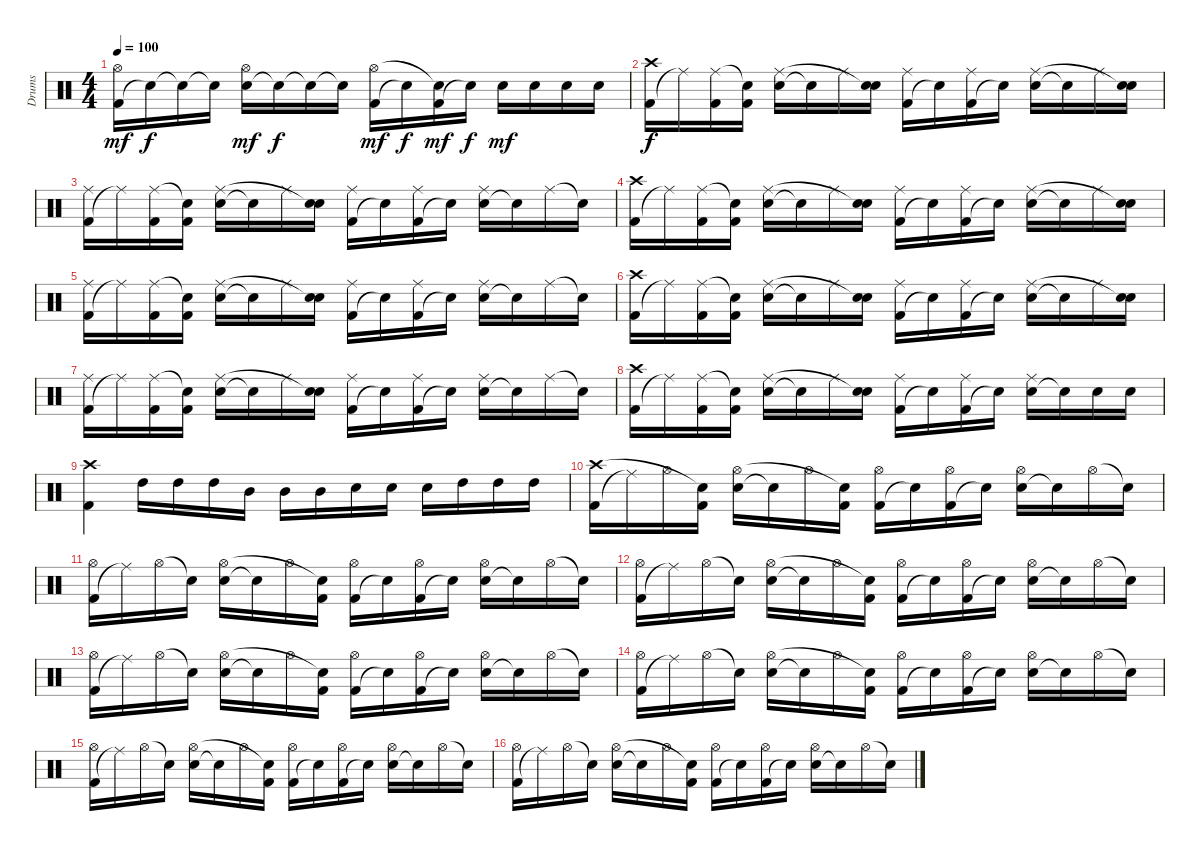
\track ("Drums" "Drums") {instrument percussion}
\staff {score}
\articulation defaults
\ts (4 4)
\tempo 100
\clef neutral
\ks c
("Kick (hit) 2" "Hi-Hat (open)").16{dy mf} "Snare (hit)"{t}.16{dy f} "Snare (hit)"{t}.16 "Snare (hit)"{t}.16 ("Snare (hit) 2" "Hi-Hat (open)").16{dy mf} "Snare (hit)"{t}.16{dy f} "Snare (hit)"{t}.16 "Snare (hit)"{t}.16 ("Kick (hit) 2" "Hi-Hat (open)").16{dy mf} "Snare (hit)"{t}.16{dy f} ("Kick (hit) 2" "Snare (hit)"{t}).16{dy mf} "Snare (hit)"{t}.16{dy f} "Snare (hit) 2".16{dy mf} "Snare (hit) 2".16 "Snare (hit) 2".16 "Snare (hit) 2".16 |
("Kick (hit) 2" "Crash high (hit)").16{dy f} "Ride (middle)"{t}.16 ("Kick (hit) 2" "Ride (middle)").16 ("Kick (hit) 2" "Snare (hit)"{t}).16 ("Snare (hit) 2" "Ride (middle)").16 "Snare (hit)"{t}.16 "Ride (middle)".16 ("Snare (hit) 2" "Snare (hit)"{t}).16 ("Kick (hit) 2" "Ride (middle)").16 "Snare (hit)"{t}.16 ("Kick (hit) 2" "Ride (middle)").16 "Snare (hit)"{t}.16 ("Snare (hit) 2" "Ride (middle)").16 "Snare (hit)"{t}.16 "Ride (middle)".16 ("Snare (hit) 2" "Snare (hit)"{t}).16 |
("Kick (hit) 2" "Ride (middle)").16 "Ride (middle)"{t}.16 ("Kick (hit) 2" "Ride (middle)").16 ("Kick (hit) 2" "Snare (hit)"{t}).16 ("Snare (hit) 2" "Ride (middle)").16 "Snare (hit)"{t}.16 "Ride (middle)".16 ("Snare (hit) 2" "Snare (hit)"{t}).16 ("Kick (hit) 2" "Ride (middle)").16 "Snare (hit)"{t}.16 ("Kick (hit) 2" "Ride (middle)").16 "Snare (hit)"{t}.16 ("Snare (hit) 2" "Ride (middle)").16 "Snare (hit)"{t}.16 "Ride (middle)".16 "Snare (hit)"{t}.16 |
("Kick (hit) 2" "Crash high (hit)").16 "Ride (middle)"{t}.16 ("Kick (hit) 2" "Ride (middle)").16 ("Kick (hit) 2" "Snare (hit)"{t}).16 ("Snare (hit) 2" "Ride (middle)").16 "Snare (hit)"{t}.16 "Ride (middle)".16 ("Snare (hit) 2" "Snare (hit)"{t}).16 ("Kick (hit) 2" "Ride (middle)").16 "Snare (hit)"{t}.16 ("Kick (hit) 2" "Ride (middle)").16 "Snare (hit)"{t}.16 ("Snare (hit) 2" "Ride (middle)").16 "Snare (hit)"{t}.16 "Ride (middle)".16 ("Snare (hit) 2" "Snare (hit)"{t}).16 |
("Kick (hit) 2" "Ride (middle)").16 "Ride (middle)"{t}.16 ("Kick (hit) 2" "Ride (middle)").16 ("Kick (hit) 2" "Snare (hit)"{t}).16 ("Snare (hit) 2" "Ride (middle)").16 "Snare (hit)"{t}.16 "Ride (middle)".16 ("Snare (hit) 2" "Snare (hit)"{t}).16 ("Kick (hit) 2" "Ride (middle)").16 "Snare (hit)"{t}.16 ("Kick (hit) 2" "Ride (middle)").16 "Snare (hit)"{t}.16 ("Snare (hit) 2" "Ride (middle)").16 "Snare (hit)"{t}.16 "Ride (middle)".16 "Snare (hit)"{t}.16 |
("Kick (hit) 2" "Crash high (hit)").16 "Ride (middle)"{t}.16 ("Kick (hit) 2" "Ride (middle)").16 ("Kick (hit) 2" "Snare (hit)"{t}).16 ("Snare (hit) 2" "Ride (middle)").16 "Snare (hit)"{t}.16 "Ride (middle)".16 ("Snare (hit) 2" "Snare (hit)"{t}).16 ("Kick (hit) 2" "Ride (middle)").16 "Snare (hit)"{t}.16 ("Kick (hit) 2" "Ride (middle)").16 "Snare (hit)"{t}.16 ("Snare (hit) 2" "Ride (middle)").16 "Snare (hit)"{t}.16 "Ride (middle)".16 ("Snare (hit) 2" "Snare (hit)"{t}).16 |
("Kick (hit) 2" "Ride (middle)").16 "Ride (middle)"{t}.16 ("Kick (hit) 2" "Ride (middle)").16 ("Kick (hit) 2" "Snare (hit)"{t}).16 ("Snare (hit) 2" "Ride (middle)").16 "Snare (hit)"{t}.16 "Ride (middle)".16 ("Snare (hit) 2" "Snare (hit)"{t}).16 ("Kick (hit) 2" "Ride (middle)").16 "Snare (hit)"{t}.16 ("Kick (hit) 2" "Ride (middle)").16 "Snare (hit)"{t}.16 ("Snare (hit) 2" "Ride (middle)").16 "Snare (hit)"{t}.16 "Ride (middle)".16 "Snare (hit)"{t}.16 |
("Kick (hit) 2" "Crash high (hit)").16 "Ride (middle)"{t}.16 ("Kick (hit) 2" "Ride (middle)").16 ("Kick (hit) 2" "Snare (hit)"{t}).16 ("Snare (hit) 2" "Ride (middle)").16 "Snare (hit)"{t}.16 "Ride (middle)".16 ("Snare (hit) 2" "Snare (hit)"{t}).16 ("Kick (hit) 2" "Ride (middle)").16 "Snare (hit)"{t}.16 ("Kick (hit) 2" "Ride (middle)").16 "Snare (hit)"{t}.16 ("Snare (hit) 2" "Ride (middle)").16 "Snare (hit)"{t}.16 "Snare (hit) 2".16 "Snare (hit) 2".16 |
("Crash high (hit)" "Kick (hit) 2").4 "High Tom (hit)".16 "High Tom (hit)".16 "High Tom (hit)".16 "Mid Tom (hit)".16 "Mid Tom (hit)".16 "Mid Tom (hit)".16 "Snare (hit) 2".16 "Snare (hit) 2".16 "Snare (hit) 2".16 "High Tom (hit)".16 "High Tom (hit)".16 "High Tom (hit)".16 |
("Kick (hit) 2" "Crash high (hit)").16 "Ride (middle)"{t}.16 "Hi-Hat (open)".16 ("Kick (hit) 2" "Snare (hit)"{t}).16 ("Snare (hit) 2" "Hi-Hat (open)").16 "Snare (hit)"{t}.16 "Hi-Hat (open)".16 ("Kick (hit) 2" "Snare (hit)"{t}).16 ("Kick (hit) 2" "Hi-Hat (open)").16 "Snare (hit)"{t}.16 ("Kick (hit) 2" "Hi-Hat (open)").16 "Snare (hit)"{t}.16 ("Snare (hit) 2" "Hi-Hat (open)").16 "Snare (hit)"{t}.16 "Hi-Hat (open)".16 "Snare (hit)"{t}.16 |
("Kick (hit) 2" "Hi-Hat (open)").16 "Ride (middle)"{t}.16 "Hi-Hat (open)".16 "Snare (hit)"{t}.16 ("Snare (hit) 2" "Hi-Hat (open)").16 "Snare (hit)"{t}.16 "Hi-Hat (open)".16 ("Kick (hit) 2" "Snare (hit)"{t}).16 ("Kick (hit) 2" "Hi-Hat (open)").16 "Snare (hit)"{t}.16 ("Kick (hit) 2" "Hi-Hat (open)").16 "Snare (hit)"{t}.16 ("Snare (hit) 2" "Hi-Hat (open)").16 "Snare (hit)"{t}.16 "Hi-Hat (open)".16 "Snare (hit)"{t}.16 |
("Kick (hit) 2" "Hi-Hat (open)").16 "Ride (middle)"{t}.16 "Hi-Hat (open)".16 "Snare (hit)"{t}.16 ("Snare (hit) 2" "Hi-Hat (open)").16 "Snare (hit)"{t}.16 "Hi-Hat (open)".16 ("Kick (hit) 2" "Snare (hit)"{t}).16 ("Kick (hit) 2" "Hi-Hat (open)").16 "Snare (hit)"{t}.16 ("Kick (hit) 2" "Hi-Hat (open)").16 "Snare (hit)"{t}.16 ("Snare (hit) 2" "Hi-Hat (open)").16 "Snare (hit)"{t}.16 "Hi-Hat (open)".16 "Snare (hit)"{t}.16 |
("Kick (hit) 2" "Hi-Hat (open)").16 "Ride (middle)"{t}.16 "Hi-Hat (open)".16 "Snare (hit)"{t}.16 ("Snare (hit) 2" "Hi-Hat (open)").16 "Snare (hit)"{t}.16 "Hi-Hat (open)".16 ("Kick (hit) 2" "Snare (hit)"{t}).16 ("Kick (hit) 2" "Hi-Hat (open)").16 "Snare (hit)"{t}.16 ("Kick (hit) 2" "Hi-Hat (open)").16 "Snare (hit)"{t}.16 ("Snare (hit) 2" "Hi-Hat (open)").16 "Snare (hit)"{t}.16 "Hi-Hat (open)".16 "Snare (hit)"{t}.16 |
("Kick (hit) 2" "Hi-Hat (open)").16 "Ride (middle)"{t}.16 "Hi-Hat (open)".16 "Snare (hit)"{t}.16 ("Snare (hit) 2" "Hi-Hat (open)").16 "Snare (hit)"{t}.16 "Hi-Hat (open)".16 ("Kick (hit) 2" "Snare (hit)"{t}).16 ("Kick (hit) 2" "Hi-Hat (open)").16 "Snare (hit)"{t}.16 ("Kick (hit) 2" "Hi-Hat (open)").16 "Snare (hit)"{t}.16 ("Snare (hit) 2" "Hi-Hat (open)").16 "Snare (hit)"{t}.16 "Hi-Hat (open)".16 "Snare (hit)"{t}.16 |
("Kick (hit) 2" "Hi-Hat (open)").16 "Ride (middle)"{t}.16 "Hi-Hat (open)".16 "Snare (hit)"{t}.16 ("Snare (hit) 2" "Hi-Hat (open)").16 "Snare (hit)"{t}.16 "Hi-Hat (open)".16 ("Kick (hit) 2" "Snare (hit)"{t}).16 ("Kick (hit) 2" "Hi-Hat (open)").16 "Snare (hit)"{t}.16 ("Kick (hit) 2" "Hi-Hat (open)").16 "Snare (hit)"{t}.16 ("Snare (hit) 2" "Hi-Hat (open)").16 "Snare (hit)"{t}.16 "Hi-Hat (open)".16 "Snare (hit)"{t}.16 |
("Kick (hit) 2" "Hi-Hat (open)").16 "Ride (middle)"{t}.16 "Hi-Hat (open)".16 "Snare (hit)"{t}.16 ("Snare (hit) 2" "Hi-Hat (open)").16 "Snare (hit)"{t}.16 "Hi-Hat (open)".16 ("Kick (hit) 2" "Snare (hit)"{t}).16 ("Kick (hit) 2" "Hi-Hat (open)").16 "Snare (hit)"{t}.16 ("Kick (hit) 2" "Hi-Hat (open)").16 "Snare (hit)"{t}.16 ("Snare (hit) 2" "Hi-Hat (open)").16 "Snare (hit)"{t}.16 "Hi-Hat (open)".16 "Snare (hit)"{t}.16
